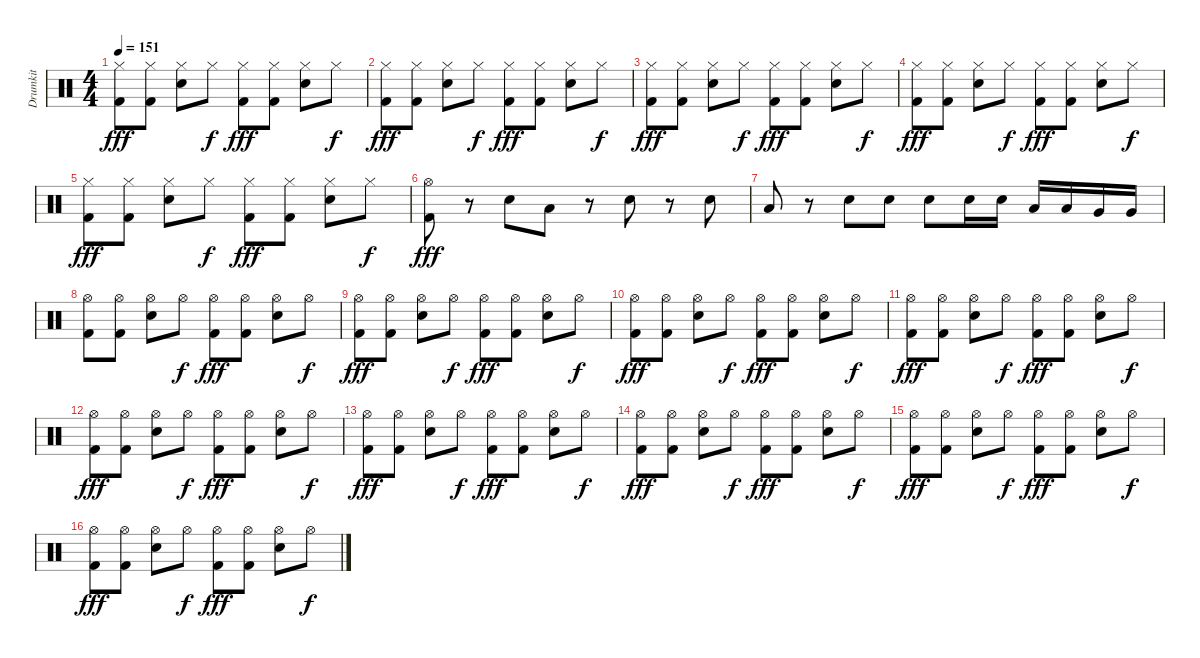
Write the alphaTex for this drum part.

\track ("Drumkit" "Drumkit") {instrument percussion}
\staff {score}
\articulation defaults
\ts (4 4)
\tempo 151
\clef neutral
\ks c
("Kick (hit) 2" "Hi-Hat (closed)").8{dy fff} ("Kick (hit) 2" "Hi-Hat (closed)").8 ("Electric Snare (hit)" "Hi-Hat (closed)").8 "Hi-Hat (closed)".8{dy f} ("Kick (hit) 2" "Hi-Hat (closed)").8{dy fff} ("Kick (hit) 2" "Hi-Hat (closed)").8 ("Electric Snare (hit)" "Hi-Hat (closed)").8 "Hi-Hat (closed)".8{dy f} |
("Kick (hit) 2" "Hi-Hat (closed)").8{dy fff} ("Kick (hit) 2" "Hi-Hat (closed)").8 ("Electric Snare (hit)" "Hi-Hat (closed)").8 "Hi-Hat (closed)".8{dy f} ("Kick (hit) 2" "Hi-Hat (closed)").8{dy fff} ("Kick (hit) 2" "Hi-Hat (closed)").8 ("Electric Snare (hit)" "Hi-Hat (closed)").8 "Hi-Hat (closed)".8{dy f} |
("Kick (hit) 2" "Hi-Hat (closed)").8{dy fff} ("Kick (hit) 2" "Hi-Hat (closed)").8 ("Electric Snare (hit)" "Hi-Hat (closed)").8 "Hi-Hat (closed)".8{dy f} ("Kick (hit) 2" "Hi-Hat (closed)").8{dy fff} ("Kick (hit) 2" "Hi-Hat (closed)").8 ("Electric Snare (hit)" "Hi-Hat (closed)").8 "Hi-Hat (closed)".8{dy f} |
("Kick (hit) 2" "Hi-Hat (closed)").8{dy fff} ("Kick (hit) 2" "Hi-Hat (closed)").8 ("Electric Snare (hit)" "Hi-Hat (closed)").8 "Hi-Hat (closed)".8{dy f} ("Kick (hit) 2" "Hi-Hat (closed)").8{dy fff} ("Kick (hit) 2" "Hi-Hat (closed)").8 ("Electric Snare (hit)" "Hi-Hat (closed)").8 "Hi-Hat (closed)".8{dy f} |
("Kick (hit) 2" "Hi-Hat (closed)").8{dy fff} ("Kick (hit) 2" "Hi-Hat (closed)").8 ("Electric Snare (hit)" "Hi-Hat (closed)").8 "Hi-Hat (closed)".8{dy f} ("Kick (hit) 2" "Hi-Hat (closed)").8{dy fff} ("Kick (hit) 2" "Hi-Hat (closed)").8 ("Electric Snare (hit)" "Hi-Hat (closed)").8 "Hi-Hat (closed)".8{dy f} |
("Kick (hit) 2" "Hi-Hat (open)").8{dy fff} r.8 "Electric Snare (hit)".8 "Low Tom (hit)".8 r.8 "Electric Snare (hit)".8 r.8 "Electric Snare (hit)".8 |
"Low Tom (hit)".8 r.8 "Electric Snare (hit)".8 "Electric Snare (hit)".8 "Electric Snare (hit)".8 "Electric Snare (hit)".16 "Electric Snare (hit)".16 "Low Tom (hit)".16 "Low Tom (hit)".16 "Very Low Tom (hit)".16 "Very Low Tom (hit)".16 |
("Kick (hit) 2" "Hi-Hat (open)").8 ("Hi-Hat (open)" "Kick (hit) 2").8 ("Electric Snare (hit)" "Hi-Hat (open)").8 "Hi-Hat (open)".8{dy f} ("Kick (hit) 2" "Hi-Hat (open)").8{dy fff} ("Kick (hit) 2" "Hi-Hat (open)").8 ("Electric Snare (hit)" "Hi-Hat (open)").8 "Hi-Hat (open)".8{dy f} |
("Kick (hit) 2" "Hi-Hat (open)").8{dy fff} ("Hi-Hat (open)" "Kick (hit) 2").8 ("Electric Snare (hit)" "Hi-Hat (open)").8 "Hi-Hat (open)".8{dy f} ("Kick (hit) 2" "Hi-Hat (open)").8{dy fff} ("Kick (hit) 2" "Hi-Hat (open)").8 ("Electric Snare (hit)" "Hi-Hat (open)").8 "Hi-Hat (open)".8{dy f} |
("Kick (hit) 2" "Hi-Hat (open)").8{dy fff} ("Hi-Hat (open)" "Kick (hit) 2").8 ("Electric Snare (hit)" "Hi-Hat (open)").8 "Hi-Hat (open)".8{dy f} ("Kick (hit) 2" "Hi-Hat (open)").8{dy fff} ("Kick (hit) 2" "Hi-Hat (open)").8 ("Electric Snare (hit)" "Hi-Hat (open)").8 "Hi-Hat (open)".8{dy f} |
("Kick (hit) 2" "Hi-Hat (open)").8{dy fff} ("Hi-Hat (open)" "Kick (hit) 2").8 ("Electric Snare (hit)" "Hi-Hat (open)").8 "Hi-Hat (open)".8{dy f} ("Kick (hit) 2" "Hi-Hat (open)").8{dy fff} ("Kick (hit) 2" "Hi-Hat (open)").8 ("Electric Snare (hit)" "Hi-Hat (open)").8 "Hi-Hat (open)".8{dy f} |
("Kick (hit) 2" "Hi-Hat (open)").8{dy fff} ("Hi-Hat (open)" "Kick (hit) 2").8 ("Electric Snare (hit)" "Hi-Hat (open)").8 "Hi-Hat (open)".8{dy f} ("Kick (hit) 2" "Hi-Hat (open)").8{dy fff} ("Kick (hit) 2" "Hi-Hat (open)").8 ("Electric Snare (hit)" "Hi-Hat (open)").8 "Hi-Hat (open)".8{dy f} |
("Kick (hit) 2" "Hi-Hat (open)").8{dy fff} ("Hi-Hat (open)" "Kick (hit) 2").8 ("Electric Snare (hit)" "Hi-Hat (open)").8 "Hi-Hat (open)".8{dy f} ("Kick (hit) 2" "Hi-Hat (open)").8{dy fff} ("Kick (hit) 2" "Hi-Hat (open)").8 ("Electric Snare (hit)" "Hi-Hat (open)").8 "Hi-Hat (open)".8{dy f} |
("Kick (hit) 2" "Hi-Hat (open)").8{dy fff} ("Hi-Hat (open)" "Kick (hit) 2").8 ("Electric Snare (hit)" "Hi-Hat (open)").8 "Hi-Hat (open)".8{dy f} ("Kick (hit) 2" "Hi-Hat (open)").8{dy fff} ("Kick (hit) 2" "Hi-Hat (open)").8 ("Electric Snare (hit)" "Hi-Hat (open)").8 "Hi-Hat (open)".8{dy f} |
("Kick (hit) 2" "Hi-Hat (open)").8{dy fff} ("Hi-Hat (open)" "Kick (hit) 2").8 ("Electric Snare (hit)" "Hi-Hat (open)").8 "Hi-Hat (open)".8{dy f} ("Kick (hit) 2" "Hi-Hat (open)").8{dy fff} ("Kick (hit) 2" "Hi-Hat (open)").8 ("Electric Snare (hit)" "Hi-Hat (open)").8 "Hi-Hat (open)".8{dy f} |
("Kick (hit) 2" "Hi-Hat (open)").8{dy fff} ("Hi-Hat (open)" "Kick (hit) 2").8 ("Electric Snare (hit)" "Hi-Hat (open)").8 "Hi-Hat (open)".8{dy f} ("Kick (hit) 2" "Hi-Hat (open)").8{dy fff} ("Kick (hit) 2" "Hi-Hat (open)").8 ("Electric Snare (hit)" "Hi-Hat (open)").8 "Hi-Hat (open)".8{dy f}
